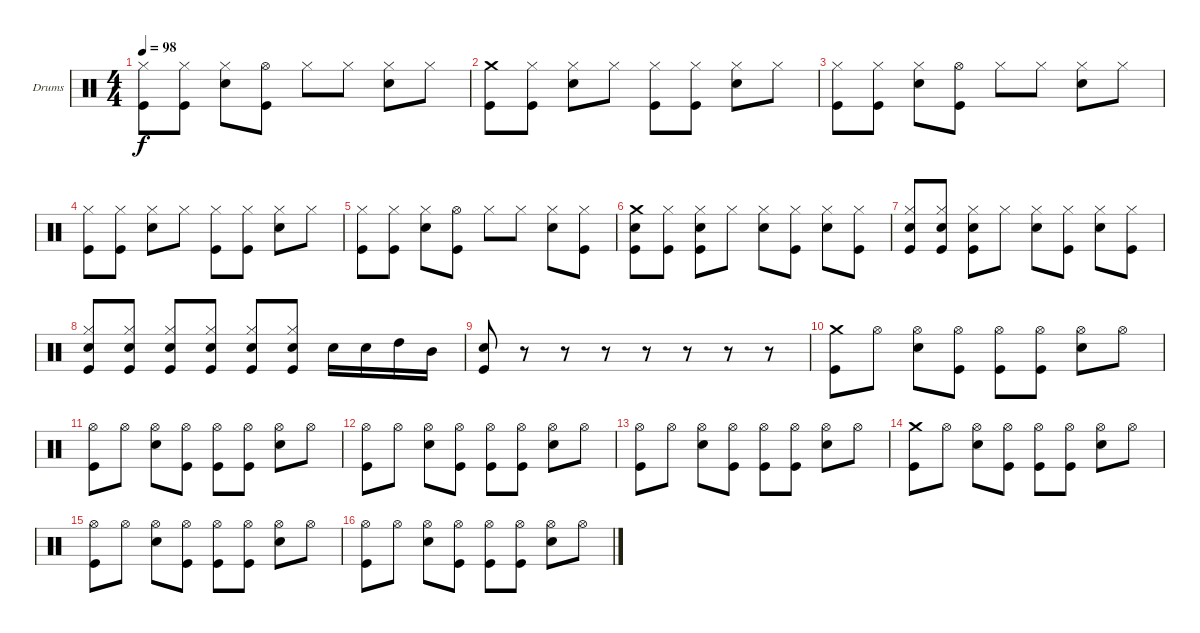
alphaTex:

\bracketExtendMode groupsimilarinstruments
\firstSystemTrackNameOrientation horizontal
\otherSystemsTrackNameOrientation horizontal
\track ("Drumkit" "Drums") {instrument percussion}
\staff {score}
\articulation defaults
\ts (4 4)
\tempo 98
\clef neutral
\scale
0.333333
\ks c
("Kick (hit)" "Hi-Hat (closed)").8{dy f} ("Kick (hit)" "Hi-Hat (closed)").8 ("Snare (hit) 2" "Hi-Hat (closed)").8 ("Kick (hit)" "Hi-Hat (open)").8 "Hi-Hat (closed)".8 "Hi-Hat (closed)".8 ("Snare (hit) 2" "Hi-Hat (closed)").8 "Hi-Hat (closed)".8 |
\scale
0.333333 ("Kick (hit)" "Crash medium (hit)").8 ("Kick (hit)" "Hi-Hat (closed)").8 ("Snare (hit) 2" "Hi-Hat (closed)").8 "Hi-Hat (closed)".8 ("Kick (hit)" "Hi-Hat (closed)").8 ("Kick (hit)" "Hi-Hat (closed)").8 ("Snare (hit) 2" "Hi-Hat (closed)").8 "Hi-Hat (closed)".8 |
\scale
0.333333 ("Kick (hit)" "Hi-Hat (closed)").8 ("Kick (hit)" "Hi-Hat (closed)").8 ("Snare (hit) 2" "Hi-Hat (closed)").8 ("Kick (hit)" "Hi-Hat (open)").8 "Hi-Hat (closed)".8 "Hi-Hat (closed)".8 ("Snare (hit) 2" "Hi-Hat (closed)").8 "Hi-Hat (closed)".8 |
\scale
0.333333 ("Kick (hit)" "Hi-Hat (closed)").8 ("Kick (hit)" "Hi-Hat (closed)").8 ("Snare (hit) 2" "Hi-Hat (closed)").8 "Hi-Hat (closed)".8 ("Kick (hit)" "Hi-Hat (closed)").8 ("Kick (hit)" "Hi-Hat (closed)").8 ("Snare (hit) 2" "Hi-Hat (closed)").8 "Hi-Hat (closed)".8 |
\scale
0.333333 ("Kick (hit)" "Hi-Hat (closed)").8 ("Kick (hit)" "Hi-Hat (closed)").8 ("Snare (hit) 2" "Hi-Hat (closed)").8 ("Kick (hit)" "Hi-Hat (open)").8 "Hi-Hat (closed)".8 "Hi-Hat (closed)".8 ("Snare (hit) 2" "Hi-Hat (closed)").8 ("Hi-Hat (closed)" "Kick (hit)").8 |
\scale
0.333333 ("Crash medium (hit)" "Snare (hit) 2" "Kick (hit)").8 ("Kick (hit)" "Hi-Hat (closed)").8 ("Snare (hit) 2" "Kick (hit)" "Hi-Hat (closed)").8 "Hi-Hat (closed)".8 ("Snare (hit) 2" "Hi-Hat (closed)").8 ("Kick (hit)" "Hi-Hat (closed)").8 ("Snare (hit) 2" "Hi-Hat (closed)").8 ("Kick (hit)" "Hi-Hat (closed)").8 |
\scale
0.333333 ("Snare (hit) 2" "Kick (hit)" "Hi-Hat (closed)").8 ("Snare (hit) 2" "Kick (hit)" "Hi-Hat (closed)").8 ("Snare (hit) 2" "Kick (hit)" "Hi-Hat (closed)").8 "Hi-Hat (closed)".8 ("Snare (hit) 2" "Hi-Hat (closed)").8 ("Kick (hit)" "Hi-Hat (closed)").8 ("Snare (hit) 2" "Hi-Hat (closed)").8 ("Kick (hit)" "Hi-Hat (closed)").8 |
\scale
0.333333 ("Snare (hit) 2" "Kick (hit)" "Hi-Hat (closed)").8 ("Snare (hit) 2" "Kick (hit)" "Hi-Hat (closed)").8 ("Snare (hit) 2" "Kick (hit)" "Hi-Hat (closed)").8 ("Snare (hit) 2" "Kick (hit)" "Hi-Hat (closed)").8 ("Snare (hit) 2" "Kick (hit)" "Hi-Hat (closed)").8 ("Kick (hit)" "Snare (hit) 2" "Hi-Hat (closed)").8 "Snare (hit) 2".16 "Snare (hit) 2".16 "High Tom (hit)".16 "Mid Tom (hit)".16 |
\scale
0.333333 ("Kick (hit)" "Snare (hit) 2").8 r.8 r.8 r.8 r.8 r.8 r.8 r.8 |
\scale
0.333333 ("Kick (hit)" "Crash medium (hit)").8 "Hi-Hat (open)".8 ("Snare (hit) 2" "Hi-Hat (open)").8 ("Kick (hit)" "Hi-Hat (open)").8 ("Kick (hit)" "Hi-Hat (open)").8 ("Kick (hit)" "Hi-Hat (open)").8 ("Snare (hit) 2" "Hi-Hat (open)").8 "Hi-Hat (open)".8 |
\scale
0.333333 ("Kick (hit)" "Hi-Hat (open)").8 "Hi-Hat (open)".8 ("Snare (hit) 2" "Hi-Hat (open)").8 ("Kick (hit)" "Hi-Hat (open)").8 ("Kick (hit)" "Hi-Hat (open)").8 ("Kick (hit)" "Hi-Hat (open)").8 ("Snare (hit) 2" "Hi-Hat (open)").8 "Hi-Hat (open)".8 |
\scale
0.333333 ("Kick (hit)" "Hi-Hat (open)").8 "Hi-Hat (open)".8 ("Snare (hit) 2" "Hi-Hat (open)").8 ("Kick (hit)" "Hi-Hat (open)").8 ("Kick (hit)" "Hi-Hat (open)").8 ("Kick (hit)" "Hi-Hat (open)").8 ("Snare (hit) 2" "Hi-Hat (open)").8 "Hi-Hat (open)".8 |
\scale
0.333333 ("Kick (hit)" "Hi-Hat (open)").8 "Hi-Hat (open)".8 ("Snare (hit) 2" "Hi-Hat (open)").8 ("Kick (hit)" "Hi-Hat (open)").8 ("Kick (hit)" "Hi-Hat (open)").8 ("Kick (hit)" "Hi-Hat (open)").8 ("Snare (hit) 2" "Hi-Hat (open)").8 "Hi-Hat (open)".8 |
\scale
0.333333 ("Kick (hit)" "Crash medium (hit)").8 "Hi-Hat (open)".8 ("Snare (hit) 2" "Hi-Hat (open)").8 ("Kick (hit)" "Hi-Hat (open)").8 ("Kick (hit)" "Hi-Hat (open)").8 ("Kick (hit)" "Hi-Hat (open)").8 ("Snare (hit) 2" "Hi-Hat (open)").8 "Hi-Hat (open)".8 |
\scale
0.333333 ("Kick (hit)" "Hi-Hat (open)").8 "Hi-Hat (open)".8 ("Snare (hit) 2" "Hi-Hat (open)").8 ("Kick (hit)" "Hi-Hat (open)").8 ("Kick (hit)" "Hi-Hat (open)").8 ("Kick (hit)" "Hi-Hat (open)").8 ("Snare (hit) 2" "Hi-Hat (open)").8 "Hi-Hat (open)".8 |
\scale
0.333333 ("Kick (hit)" "Hi-Hat (open)").8 "Hi-Hat (open)".8 ("Snare (hit) 2" "Hi-Hat (open)").8 ("Kick (hit)" "Hi-Hat (open)").8 ("Kick (hit)" "Hi-Hat (open)").8 ("Kick (hit)" "Hi-Hat (open)").8 ("Snare (hit) 2" "Hi-Hat (open)").8 "Hi-Hat (open)".8
